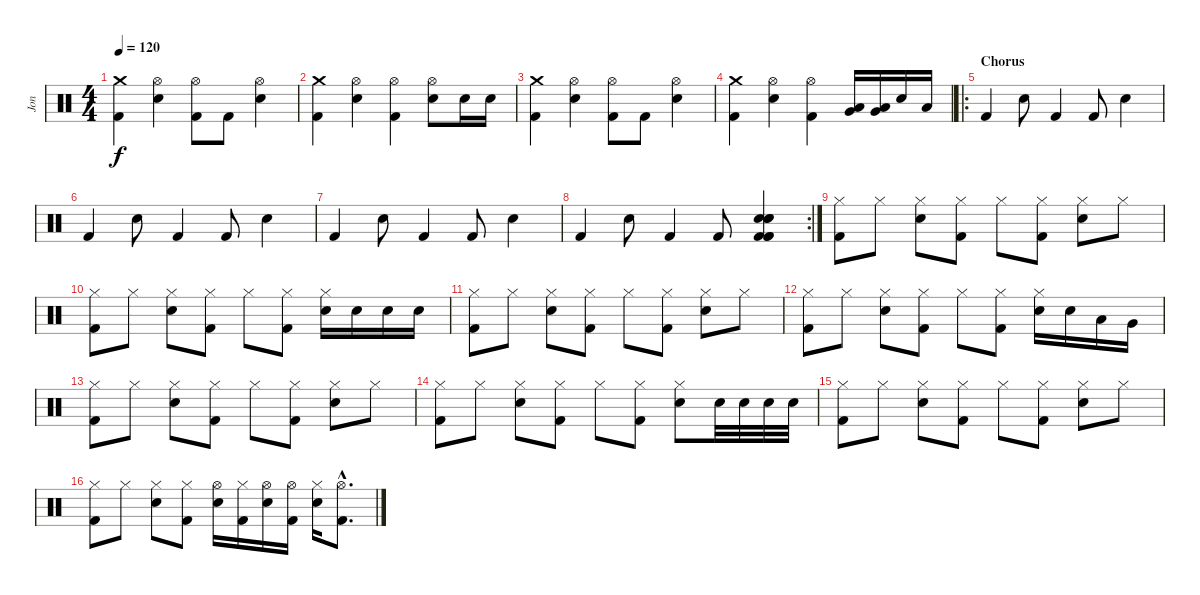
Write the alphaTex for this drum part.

\track ("Jon" "Jon") {instrument percussion}
\staff {score}
\articulation defaults
\ts (4 4)
\tempo 120
\clef neutral
\ks c
("Crash medium (hit)" "Kick (hit) 2").4{dy f} ("Hi-Hat (open)" "Snare (hit) 2").4 ("Hi-Hat (open)" "Kick (hit) 2").8 "Kick (hit) 2".8 ("Hi-Hat (open)" "Snare (hit) 2").4 |
("Crash medium (hit)" "Kick (hit) 2").4 ("Hi-Hat (open)" "Snare (hit) 2").4 ("Hi-Hat (open)" "Kick (hit) 2").4 ("Hi-Hat (open)" "Snare (hit) 2").8 "Snare (hit) 2".16 "Snare (hit) 2".16 |
("Crash medium (hit)" "Kick (hit) 2").4 ("Hi-Hat (open)" "Snare (hit) 2").4 ("Hi-Hat (open)" "Kick (hit) 2").8 "Kick (hit) 2".8 ("Hi-Hat (open)" "Snare (hit) 2").4 |
("Crash medium (hit)" "Kick (hit) 2").4 ("Hi-Hat (open)" "Snare (hit) 2").4 ("Hi-Hat (open)" "Kick (hit) 2").4 ("Low Tom (hit)" "Very Low Tom (hit)").16 ("Very Low Tom (hit)" "Low Floor Tom (hit)").16 "Snare (hit) 2".16 "Low Floor Tom (hit)".16 |
\ro
\section ("" "Chorus")
"Kick (hit) 2".4 "Snare (hit) 2".8 "Kick (hit) 2".4 "Kick (hit) 2".8 "Snare (hit) 2".4 |
"Kick (hit) 2".4 "Snare (hit) 2".8 "Kick (hit) 2".4 "Kick (hit) 2".8 "Snare (hit) 2".4 |
"Kick (hit) 2".4 "Snare (hit) 2".8 "Kick (hit) 2".4 "Kick (hit) 2".8 "Snare (hit) 2".4 |
\rc 2 "Kick (hit) 2".4 "Snare (hit) 2".8 "Kick (hit) 2".4 "Kick (hit) 2".8
("Snare (hit) 2" "Electric Snare (hit)" "Snare (hit) 2" "Kick (hit) 2" "Kick (hit) 2" "Kick (hit) 2").4 |
("Hi-Hat (closed)" "Kick (hit) 2").8 "Hi-Hat (closed)".8 ("Hi-Hat (closed)" "Snare (hit) 2").8 ("Hi-Hat (closed)" "Kick (hit) 2").8 "Hi-Hat (closed)".8 ("Hi-Hat (closed)" "Kick (hit) 2").8 ("Hi-Hat (closed)" "Snare (hit) 2").8 "Hi-Hat (closed)".8 |
("Hi-Hat (closed)" "Kick (hit) 2").8 "Hi-Hat (closed)".8 ("Hi-Hat (closed)" "Snare (hit) 2").8 ("Hi-Hat (closed)" "Kick (hit) 2").8 "Hi-Hat (closed)".8 ("Hi-Hat (closed)" "Kick (hit) 2").8 ("Hi-Hat (closed)" "Snare (hit) 2").16 "Snare (hit) 2".16 "Snare (hit) 2".16 "Snare (hit) 2".16 |
("Hi-Hat (closed)" "Kick (hit) 2").8 "Hi-Hat (closed)".8 ("Hi-Hat (closed)" "Snare (hit) 2").8 ("Hi-Hat (closed)" "Kick (hit) 2").8 "Hi-Hat (closed)".8 ("Hi-Hat (closed)" "Kick (hit) 2").8 ("Hi-Hat (closed)" "Snare (hit) 2").8 "Hi-Hat (closed)".8 |
("Hi-Hat (closed)" "Kick (hit) 2").8 "Hi-Hat (closed)".8 ("Hi-Hat (closed)" "Snare (hit) 2").8 ("Hi-Hat (closed)" "Kick (hit) 2").8 "Hi-Hat (closed)".8 ("Hi-Hat (closed)" "Kick (hit) 2").8 ("Hi-Hat (closed)" "Snare (hit) 2").16 "Snare (hit) 2".16 "Low Tom (hit)".16 "Very Low Tom (hit)".16 |
("Hi-Hat (closed)" "Kick (hit) 2").8 "Hi-Hat (closed)".8 ("Hi-Hat (closed)" "Snare (hit) 2").8 ("Hi-Hat (closed)" "Kick (hit) 2").8 "Hi-Hat (closed)".8 ("Hi-Hat (closed)" "Kick (hit) 2").8 ("Hi-Hat (closed)" "Snare (hit) 2").8 "Hi-Hat (closed)".8 |
("Hi-Hat (closed)" "Kick (hit) 2").8 "Hi-Hat (closed)".8 ("Hi-Hat (closed)" "Snare (hit) 2").8 ("Hi-Hat (closed)" "Kick (hit) 2").8 "Hi-Hat (closed)".8 ("Hi-Hat (closed)" "Kick (hit) 2").8 ("Hi-Hat (closed)" "Snare (hit) 2").8 "Snare (hit) 2".32 "Snare (hit) 2".32 "Snare (hit) 2".32 "Snare (hit) 2".32 |
("Hi-Hat (closed)" "Kick (hit) 2").8 "Hi-Hat (closed)".8 ("Hi-Hat (closed)" "Snare (hit) 2").8 ("Hi-Hat (closed)" "Kick (hit) 2").8 "Hi-Hat (closed)".8 ("Hi-Hat (closed)" "Kick (hit) 2").8 ("Hi-Hat (closed)" "Snare (hit) 2").8 "Hi-Hat (closed)".8 |
("Hi-Hat (closed)" "Kick (hit) 2").8 "Hi-Hat (closed)".8 ("Hi-Hat (closed)" "Snare (hit) 2").8 ("Hi-Hat (closed)" "Kick (hit) 2").8 ("Hi-Hat (open)" "Snare (hit) 2").16 ("Hi-Hat (closed)" "Kick (hit) 2").16 ("Hi-Hat (open)" "Snare (hit) 2").16 ("Hi-Hat (open)" "Kick (hit) 2").16 ("Hi-Hat (closed)" "Snare (hit) 2").16 ("Hi-Hat (open)"{hac} "Kick (hit) 2"{hac}).8{d}
